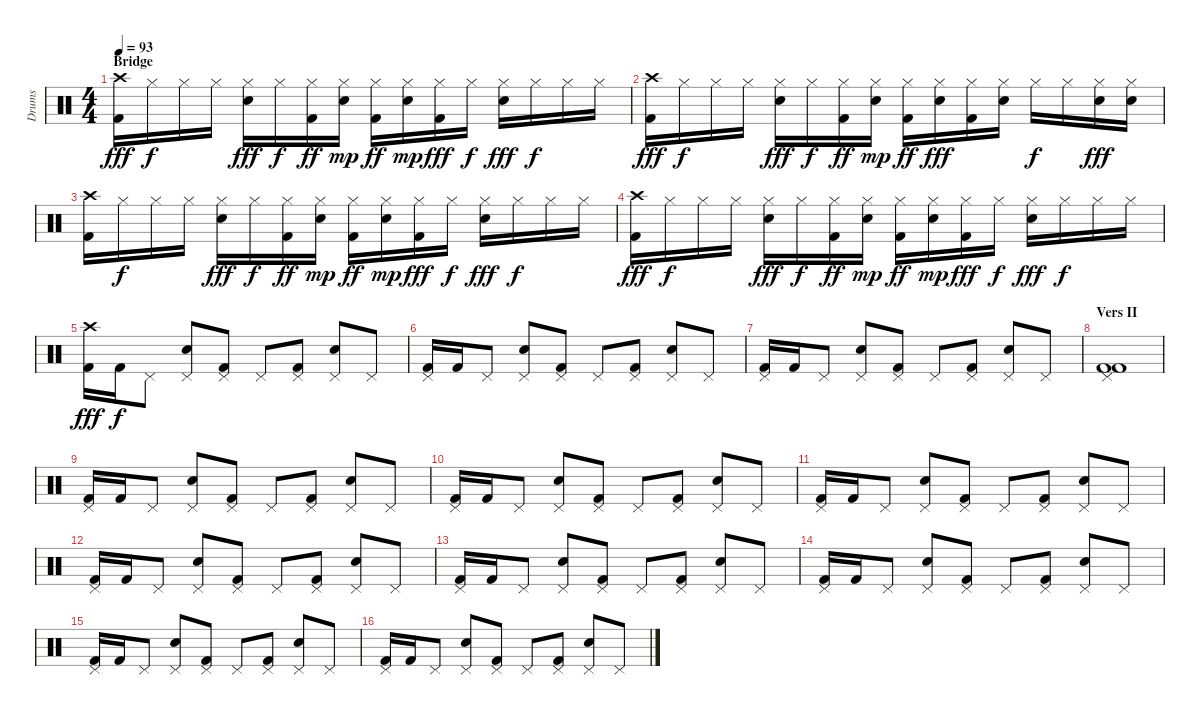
\track ("Drums" "Drums") {instrument percussion}
\staff {score}
\articulation defaults
\ts (4 4)
\section ("" "Bridge")
\tempo 93
\clef neutral
\ks c
("Crash high (hit)" "Kick (hit) 2").16{dy fff} "Hi-Hat (closed)".16{dy f} "Hi-Hat (closed)".16 "Hi-Hat (closed)".16 ("Hi-Hat (closed)" "Electric Snare (hit)").16{dy fff} "Hi-Hat (closed)".16{dy f} ("Hi-Hat (closed)" "Kick (hit) 2").16{dy ff} ("Hi-Hat (closed)" "Electric Snare (hit)").16{dy mp} ("Hi-Hat (closed)" "Kick (hit) 2").16{dy ff} ("Hi-Hat (closed)" "Electric Snare (hit)").16{dy mp} ("Hi-Hat (closed)" "Kick (hit) 2").16{dy fff} "Hi-Hat (closed)".16{dy f} ("Hi-Hat (closed)" "Electric Snare (hit)").16{dy fff} "Hi-Hat (closed)".16{dy f} "Hi-Hat (closed)".16 "Hi-Hat (closed)".16 |
("Crash high (hit)" "Kick (hit) 2").16{dy fff} "Hi-Hat (closed)".16{dy f} "Hi-Hat (closed)".16 "Hi-Hat (closed)".16 ("Hi-Hat (closed)" "Electric Snare (hit)").16{dy fff} "Hi-Hat (closed)".16{dy f} ("Hi-Hat (closed)" "Kick (hit) 2").16{dy ff} ("Hi-Hat (closed)" "Electric Snare (hit)").16{dy mp} ("Hi-Hat (closed)" "Kick (hit) 2").16{dy ff} ("Hi-Hat (closed)" "Electric Snare (hit)").16{dy fff} ("Hi-Hat (closed)" "Kick (hit) 2").16 ("Hi-Hat (closed)" "Electric Snare (hit)").16 "Hi-Hat (closed)".16{dy f} "Hi-Hat (closed)".16 ("Hi-Hat (closed)" "Electric Snare (hit)").16{dy fff} ("Hi-Hat (closed)" "Electric Snare (hit)").16 |
("Crash high (hit)" "Kick (hit) 2").16 "Hi-Hat (closed)".16{dy f} "Hi-Hat (closed)".16 "Hi-Hat (closed)".16 ("Hi-Hat (closed)" "Electric Snare (hit)").16{dy fff} "Hi-Hat (closed)".16{dy f} ("Hi-Hat (closed)" "Kick (hit) 2").16{dy ff} ("Hi-Hat (closed)" "Electric Snare (hit)").16{dy mp} ("Hi-Hat (closed)" "Kick (hit) 2").16{dy ff} ("Hi-Hat (closed)" "Electric Snare (hit)").16{dy mp} ("Hi-Hat (closed)" "Kick (hit) 2").16{dy fff} "Hi-Hat (closed)".16{dy f} ("Hi-Hat (closed)" "Electric Snare (hit)").16{dy fff} "Hi-Hat (closed)".16{dy f} "Hi-Hat (closed)".16 "Hi-Hat (closed)".16 |
("Crash high (hit)" "Kick (hit) 2").16{dy fff} "Hi-Hat (closed)".16{dy f} "Hi-Hat (closed)".16 "Hi-Hat (closed)".16 ("Hi-Hat (closed)" "Electric Snare (hit)").16{dy fff} "Hi-Hat (closed)".16{dy f} ("Hi-Hat (closed)" "Kick (hit) 2").16{dy ff} ("Hi-Hat (closed)" "Electric Snare (hit)").16{dy mp} ("Hi-Hat (closed)" "Kick (hit) 2").16{dy ff} ("Hi-Hat (closed)" "Electric Snare (hit)").16{dy mp} ("Hi-Hat (closed)" "Kick (hit) 2").16{dy fff} "Hi-Hat (closed)".16{dy f} ("Hi-Hat (closed)" "Electric Snare (hit)").16{dy fff} "Hi-Hat (closed)".16{dy f} "Hi-Hat (closed)".16 "Hi-Hat (closed)".16 |
("Crash high (hit)" "Kick (hit) 2").16{dy fff} "Kick (hit) 2".16{dy f} "Pedal Hi-Hat (hit)".8 ("Pedal Hi-Hat (hit)" "Electric Snare (hit)").8 ("Pedal Hi-Hat (hit)" "Kick (hit) 2").8 "Pedal Hi-Hat (hit)".8 ("Pedal Hi-Hat (hit)" "Kick (hit) 2").8 ("Pedal Hi-Hat (hit)" "Electric Snare (hit)").8 "Pedal Hi-Hat (hit)".8 |
("Pedal Hi-Hat (hit)" "Kick (hit) 2").16 "Kick (hit) 2".16 "Pedal Hi-Hat (hit)".8 ("Pedal Hi-Hat (hit)" "Electric Snare (hit)").8 ("Pedal Hi-Hat (hit)" "Kick (hit) 2").8 "Pedal Hi-Hat (hit)".8 ("Pedal Hi-Hat (hit)" "Kick (hit) 2").8 ("Pedal Hi-Hat (hit)" "Electric Snare (hit)").8 "Pedal Hi-Hat (hit)".8 |
("Pedal Hi-Hat (hit)" "Kick (hit) 2").16 "Kick (hit) 2".16 "Pedal Hi-Hat (hit)".8 ("Pedal Hi-Hat (hit)" "Electric Snare (hit)").8 ("Pedal Hi-Hat (hit)" "Kick (hit) 2").8 "Pedal Hi-Hat (hit)".8 ("Pedal Hi-Hat (hit)" "Kick (hit) 2").8 ("Pedal Hi-Hat (hit)" "Electric Snare (hit)").8 "Pedal Hi-Hat (hit)".8 |
\section ("" "Vers II")
("Pedal Hi-Hat (hit)" "Kick (hit) 2" "Kick (hit) 2").1 |
("Pedal Hi-Hat (hit)" "Kick (hit) 2").16 "Kick (hit) 2".16 "Pedal Hi-Hat (hit)".8 ("Pedal Hi-Hat (hit)" "Electric Snare (hit)").8 ("Pedal Hi-Hat (hit)" "Kick (hit) 2").8 "Pedal Hi-Hat (hit)".8 ("Pedal Hi-Hat (hit)" "Kick (hit) 2").8 ("Pedal Hi-Hat (hit)" "Electric Snare (hit)").8 "Pedal Hi-Hat (hit)".8 |
("Pedal Hi-Hat (hit)" "Kick (hit) 2").16 "Kick (hit) 2".16 "Pedal Hi-Hat (hit)".8 ("Pedal Hi-Hat (hit)" "Electric Snare (hit)").8 ("Pedal Hi-Hat (hit)" "Kick (hit) 2").8 "Pedal Hi-Hat (hit)".8 ("Pedal Hi-Hat (hit)" "Kick (hit) 2").8 ("Pedal Hi-Hat (hit)" "Electric Snare (hit)").8 "Pedal Hi-Hat (hit)".8 |
("Pedal Hi-Hat (hit)" "Kick (hit) 2").16 "Kick (hit) 2".16 "Pedal Hi-Hat (hit)".8 ("Pedal Hi-Hat (hit)" "Electric Snare (hit)").8 ("Pedal Hi-Hat (hit)" "Kick (hit) 2").8 "Pedal Hi-Hat (hit)".8 ("Pedal Hi-Hat (hit)" "Kick (hit) 2").8 ("Pedal Hi-Hat (hit)" "Electric Snare (hit)").8 "Pedal Hi-Hat (hit)".8 |
("Pedal Hi-Hat (hit)" "Kick (hit) 2").16 "Kick (hit) 2".16 "Pedal Hi-Hat (hit)".8 ("Pedal Hi-Hat (hit)" "Electric Snare (hit)").8 ("Pedal Hi-Hat (hit)" "Kick (hit) 2").8 "Pedal Hi-Hat (hit)".8 ("Pedal Hi-Hat (hit)" "Kick (hit) 2").8 ("Pedal Hi-Hat (hit)" "Electric Snare (hit)").8 "Pedal Hi-Hat (hit)".8 |
("Pedal Hi-Hat (hit)" "Kick (hit) 2").16 "Kick (hit) 2".16 "Pedal Hi-Hat (hit)".8 ("Pedal Hi-Hat (hit)" "Electric Snare (hit)").8 ("Pedal Hi-Hat (hit)" "Kick (hit) 2").8 "Pedal Hi-Hat (hit)".8 ("Pedal Hi-Hat (hit)" "Kick (hit) 2").8 ("Pedal Hi-Hat (hit)" "Electric Snare (hit)").8 "Pedal Hi-Hat (hit)".8 |
("Pedal Hi-Hat (hit)" "Kick (hit) 2").16 "Kick (hit) 2".16 "Pedal Hi-Hat (hit)".8 ("Pedal Hi-Hat (hit)" "Electric Snare (hit)").8 ("Pedal Hi-Hat (hit)" "Kick (hit) 2").8 "Pedal Hi-Hat (hit)".8 ("Pedal Hi-Hat (hit)" "Kick (hit) 2").8 ("Pedal Hi-Hat (hit)" "Electric Snare (hit)").8 "Pedal Hi-Hat (hit)".8 |
("Pedal Hi-Hat (hit)" "Kick (hit) 2").16 "Kick (hit) 2".16 "Pedal Hi-Hat (hit)".8 ("Pedal Hi-Hat (hit)" "Electric Snare (hit)").8 ("Pedal Hi-Hat (hit)" "Kick (hit) 2").8 "Pedal Hi-Hat (hit)".8 ("Pedal Hi-Hat (hit)" "Kick (hit) 2").8 ("Pedal Hi-Hat (hit)" "Electric Snare (hit)").8 "Pedal Hi-Hat (hit)".8 |
("Pedal Hi-Hat (hit)" "Kick (hit) 2").16 "Kick (hit) 2".16 "Pedal Hi-Hat (hit)".8 ("Pedal Hi-Hat (hit)" "Electric Snare (hit)").8 ("Pedal Hi-Hat (hit)" "Kick (hit) 2").8 "Pedal Hi-Hat (hit)".8 ("Pedal Hi-Hat (hit)" "Kick (hit) 2").8 ("Pedal Hi-Hat (hit)" "Electric Snare (hit)").8 "Pedal Hi-Hat (hit)".8
